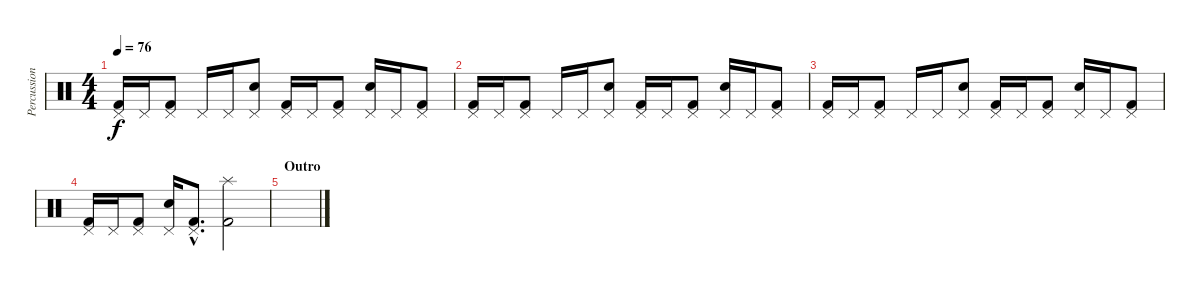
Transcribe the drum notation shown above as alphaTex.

\track ("Percussion" "Percussion") {instrument percussion}
\staff {score}
\articulation defaults
\ts (4 4)
\tempo 76
\clef neutral
\ks c
("Pedal Hi-Hat (hit)" "Kick (hit) 2").16{dy f} "Pedal Hi-Hat (hit)".16 ("Pedal Hi-Hat (hit)" "Kick (hit) 2").8 "Pedal Hi-Hat (hit)".16 "Pedal Hi-Hat (hit)".16 ("Pedal Hi-Hat (hit)" "Electric Snare (hit)").8 ("Pedal Hi-Hat (hit)" "Kick (hit) 2").16 "Pedal Hi-Hat (hit)".16 ("Pedal Hi-Hat (hit)" "Kick (hit) 2").8 ("Pedal Hi-Hat (hit)" "Electric Snare (hit)").16 "Pedal Hi-Hat (hit)".16 ("Pedal Hi-Hat (hit)" "Kick (hit) 2").8 |
("Pedal Hi-Hat (hit)" "Kick (hit) 2").16 "Pedal Hi-Hat (hit)".16 ("Pedal Hi-Hat (hit)" "Kick (hit) 2").8 "Pedal Hi-Hat (hit)".16 "Pedal Hi-Hat (hit)".16 ("Pedal Hi-Hat (hit)" "Electric Snare (hit)").8 ("Pedal Hi-Hat (hit)" "Kick (hit) 2").16 "Pedal Hi-Hat (hit)".16 ("Pedal Hi-Hat (hit)" "Kick (hit) 2").8 ("Pedal Hi-Hat (hit)" "Electric Snare (hit)").16 "Pedal Hi-Hat (hit)".16 ("Pedal Hi-Hat (hit)" "Kick (hit) 2").8 |
("Pedal Hi-Hat (hit)" "Kick (hit) 2").16 "Pedal Hi-Hat (hit)".16 ("Pedal Hi-Hat (hit)" "Kick (hit) 2").8 "Pedal Hi-Hat (hit)".16 "Pedal Hi-Hat (hit)".16 ("Pedal Hi-Hat (hit)" "Electric Snare (hit)").8 ("Pedal Hi-Hat (hit)" "Kick (hit) 2").16 "Pedal Hi-Hat (hit)".16 ("Pedal Hi-Hat (hit)" "Kick (hit) 2").8 ("Pedal Hi-Hat (hit)" "Electric Snare (hit)").16 "Pedal Hi-Hat (hit)".16 ("Pedal Hi-Hat (hit)" "Kick (hit) 2").8 |
("Pedal Hi-Hat (hit)" "Kick (hit) 2").16 "Pedal Hi-Hat (hit)".16 ("Pedal Hi-Hat (hit)" "Kick (hit) 2").8 ("Pedal Hi-Hat (hit)" "Electric Snare (hit)").16 ("Pedal Hi-Hat (hit)"{hac} "Kick (hit) 2"{hac}).8{d} ("Splash (hit)" "Kick (hit) 2").2 |
\section ("" "Outro")
